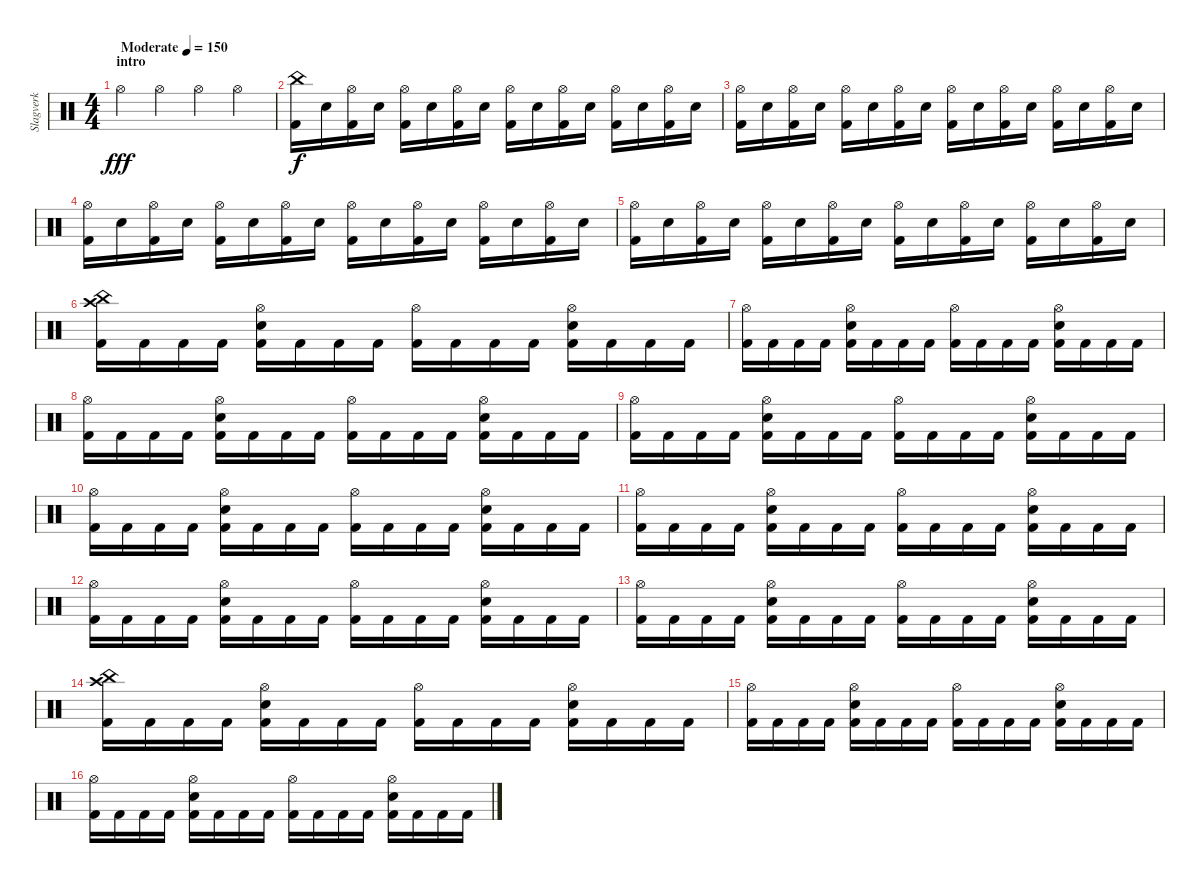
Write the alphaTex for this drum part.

\track ("Slagverk" "Slagverk") {instrument percussion}
\staff {score}
\articulation defaults
\ts (4 4)
\section ("" "intro")
\tempo (150 "Moderate")
\clef neutral
\ks c "Hi-Hat (open)".4{dy fff} "Hi-Hat (open)".4 "Hi-Hat (open)".4 "Hi-Hat (open)".4
|
("China (hit)" "Kick (hit) 2").16{dy f} "Electric Snare (hit)".16 ("Hi-Hat (open)" "Kick (hit) 2").16 "Electric Snare (hit)".16 ("Hi-Hat (open)" "Kick (hit) 2").16 "Electric Snare (hit)".16 ("Hi-Hat (open)" "Kick (hit) 2").16 "Electric Snare (hit)".16 ("Hi-Hat (open)" "Kick (hit) 2").16 "Electric Snare (hit)".16 ("Hi-Hat (open)" "Kick (hit) 2").16 "Electric Snare (hit)".16 ("Hi-Hat (open)" "Kick (hit) 2").16 "Electric Snare (hit)".16 ("Hi-Hat (open)" "Kick (hit) 2").16 "Electric Snare (hit)".16 |
("Hi-Hat (open)" "Kick (hit) 2").16 "Electric Snare (hit)".16 ("Hi-Hat (open)" "Kick (hit) 2").16 "Electric Snare (hit)".16 ("Hi-Hat (open)" "Kick (hit) 2").16 "Electric Snare (hit)".16 ("Hi-Hat (open)" "Kick (hit) 2").16 "Electric Snare (hit)".16 ("Hi-Hat (open)" "Kick (hit) 2").16 "Electric Snare (hit)".16 ("Hi-Hat (open)" "Kick (hit) 2").16 "Electric Snare (hit)".16 ("Hi-Hat (open)" "Kick (hit) 2").16 "Electric Snare (hit)".16 ("Hi-Hat (open)" "Kick (hit) 2").16 "Electric Snare (hit)".16 |
("Hi-Hat (open)" "Kick (hit) 2").16 "Electric Snare (hit)".16 ("Hi-Hat (open)" "Kick (hit) 2").16 "Electric Snare (hit)".16 ("Hi-Hat (open)" "Kick (hit) 2").16 "Electric Snare (hit)".16 ("Hi-Hat (open)" "Kick (hit) 2").16 "Electric Snare (hit)".16 ("Hi-Hat (open)" "Kick (hit) 2").16 "Electric Snare (hit)".16 ("Hi-Hat (open)" "Kick (hit) 2").16 "Electric Snare (hit)".16 ("Hi-Hat (open)" "Kick (hit) 2").16 "Electric Snare (hit)".16 ("Hi-Hat (open)" "Kick (hit) 2").16 "Electric Snare (hit)".16 |
("Hi-Hat (open)" "Kick (hit) 2").16 "Electric Snare (hit)".16 ("Hi-Hat (open)" "Kick (hit) 2").16 "Electric Snare (hit)".16 ("Hi-Hat (open)" "Kick (hit) 2").16 "Electric Snare (hit)".16 ("Hi-Hat (open)" "Kick (hit) 2").16 "Electric Snare (hit)".16 ("Hi-Hat (open)" "Kick (hit) 2").16 "Electric Snare (hit)".16 ("Hi-Hat (open)" "Kick (hit) 2").16 "Electric Snare (hit)".16 ("Hi-Hat (open)" "Kick (hit) 2").16 "Electric Snare (hit)".16 ("Hi-Hat (open)" "Kick (hit) 2").16 "Electric Snare (hit)".16 |
("China (hit)" "Crash high (hit)" "Kick (hit) 2").16 "Kick (hit) 2".16 "Kick (hit) 2".16 "Kick (hit) 2".16 ("Hi-Hat (open)" "Electric Snare (hit)" "Kick (hit) 2").16 "Kick (hit) 2".16 "Kick (hit) 2".16 "Kick (hit) 2".16 ("Hi-Hat (open)" "Kick (hit) 2").16 "Kick (hit) 2".16 "Kick (hit) 2".16 "Kick (hit) 2".16 ("Hi-Hat (open)" "Electric Snare (hit)" "Kick (hit) 2").16 "Kick (hit) 2".16 "Kick (hit) 2".16 "Kick (hit) 2".16 |
("Hi-Hat (open)" "Kick (hit) 2").16 "Kick (hit) 2".16 "Kick (hit) 2".16 "Kick (hit) 2".16 ("Hi-Hat (open)" "Electric Snare (hit)" "Kick (hit) 2").16 "Kick (hit) 2".16 "Kick (hit) 2".16 "Kick (hit) 2".16 ("Hi-Hat (open)" "Kick (hit) 2").16 "Kick (hit) 2".16 "Kick (hit) 2".16 "Kick (hit) 2".16 ("Hi-Hat (open)" "Electric Snare (hit)" "Kick (hit) 2").16 "Kick (hit) 2".16 "Kick (hit) 2".16 "Kick (hit) 2".16 |
("Hi-Hat (open)" "Kick (hit) 2").16 "Kick (hit) 2".16 "Kick (hit) 2".16 "Kick (hit) 2".16 ("Hi-Hat (open)" "Electric Snare (hit)" "Kick (hit) 2").16 "Kick (hit) 2".16 "Kick (hit) 2".16 "Kick (hit) 2".16 ("Hi-Hat (open)" "Kick (hit) 2").16 "Kick (hit) 2".16 "Kick (hit) 2".16 "Kick (hit) 2".16 ("Hi-Hat (open)" "Electric Snare (hit)" "Kick (hit) 2").16 "Kick (hit) 2".16 "Kick (hit) 2".16 "Kick (hit) 2".16 |
("Hi-Hat (open)" "Kick (hit) 2").16 "Kick (hit) 2".16 "Kick (hit) 2".16 "Kick (hit) 2".16 ("Hi-Hat (open)" "Electric Snare (hit)" "Kick (hit) 2").16 "Kick (hit) 2".16 "Kick (hit) 2".16 "Kick (hit) 2".16 ("Hi-Hat (open)" "Kick (hit) 2").16 "Kick (hit) 2".16 "Kick (hit) 2".16 "Kick (hit) 2".16 ("Hi-Hat (open)" "Electric Snare (hit)" "Kick (hit) 2").16 "Kick (hit) 2".16 "Kick (hit) 2".16 "Kick (hit) 2".16 |
("Hi-Hat (open)" "Kick (hit) 2").16 "Kick (hit) 2".16 "Kick (hit) 2".16 "Kick (hit) 2".16 ("Hi-Hat (open)" "Electric Snare (hit)" "Kick (hit) 2").16 "Kick (hit) 2".16 "Kick (hit) 2".16 "Kick (hit) 2".16 ("Hi-Hat (open)" "Kick (hit) 2").16 "Kick (hit) 2".16 "Kick (hit) 2".16 "Kick (hit) 2".16 ("Hi-Hat (open)" "Electric Snare (hit)" "Kick (hit) 2").16 "Kick (hit) 2".16 "Kick (hit) 2".16 "Kick (hit) 2".16 |
("Hi-Hat (open)" "Kick (hit) 2").16 "Kick (hit) 2".16 "Kick (hit) 2".16 "Kick (hit) 2".16 ("Hi-Hat (open)" "Electric Snare (hit)" "Kick (hit) 2").16 "Kick (hit) 2".16 "Kick (hit) 2".16 "Kick (hit) 2".16 ("Hi-Hat (open)" "Kick (hit) 2").16 "Kick (hit) 2".16 "Kick (hit) 2".16 "Kick (hit) 2".16 ("Hi-Hat (open)" "Electric Snare (hit)" "Kick (hit) 2").16 "Kick (hit) 2".16 "Kick (hit) 2".16 "Kick (hit) 2".16 |
("Hi-Hat (open)" "Kick (hit) 2").16 "Kick (hit) 2".16 "Kick (hit) 2".16 "Kick (hit) 2".16 ("Hi-Hat (open)" "Electric Snare (hit)" "Kick (hit) 2").16 "Kick (hit) 2".16 "Kick (hit) 2".16 "Kick (hit) 2".16 ("Hi-Hat (open)" "Kick (hit) 2").16 "Kick (hit) 2".16 "Kick (hit) 2".16 "Kick (hit) 2".16 ("Hi-Hat (open)" "Electric Snare (hit)" "Kick (hit) 2").16 "Kick (hit) 2".16 "Kick (hit) 2".16 "Kick (hit) 2".16 |
("Hi-Hat (open)" "Kick (hit) 2").16 "Kick (hit) 2".16 "Kick (hit) 2".16 "Kick (hit) 2".16 ("Hi-Hat (open)" "Electric Snare (hit)" "Kick (hit) 2").16 "Kick (hit) 2".16 "Kick (hit) 2".16 "Kick (hit) 2".16 ("Hi-Hat (open)" "Kick (hit) 2").16 "Kick (hit) 2".16 "Kick (hit) 2".16 "Kick (hit) 2".16 ("Hi-Hat (open)" "Electric Snare (hit)" "Kick (hit) 2").16 "Kick (hit) 2".16 "Kick (hit) 2".16 "Kick (hit) 2".16 |
("China (hit)" "Crash high (hit)" "Kick (hit) 2").16 "Kick (hit) 2".16 "Kick (hit) 2".16 "Kick (hit) 2".16 ("Hi-Hat (open)" "Electric Snare (hit)" "Kick (hit) 2").16 "Kick (hit) 2".16 "Kick (hit) 2".16 "Kick (hit) 2".16 ("Hi-Hat (open)" "Kick (hit) 2").16 "Kick (hit) 2".16 "Kick (hit) 2".16 "Kick (hit) 2".16 ("Hi-Hat (open)" "Electric Snare (hit)" "Kick (hit) 2").16 "Kick (hit) 2".16 "Kick (hit) 2".16 "Kick (hit) 2".16 |
("Hi-Hat (open)" "Kick (hit) 2").16 "Kick (hit) 2".16 "Kick (hit) 2".16 "Kick (hit) 2".16 ("Hi-Hat (open)" "Electric Snare (hit)" "Kick (hit) 2").16 "Kick (hit) 2".16 "Kick (hit) 2".16 "Kick (hit) 2".16 ("Hi-Hat (open)" "Kick (hit) 2").16 "Kick (hit) 2".16 "Kick (hit) 2".16 "Kick (hit) 2".16 ("Hi-Hat (open)" "Electric Snare (hit)" "Kick (hit) 2").16 "Kick (hit) 2".16 "Kick (hit) 2".16 "Kick (hit) 2".16 |
("Hi-Hat (open)" "Kick (hit) 2").16 "Kick (hit) 2".16 "Kick (hit) 2".16 "Kick (hit) 2".16 ("Hi-Hat (open)" "Electric Snare (hit)" "Kick (hit) 2").16 "Kick (hit) 2".16 "Kick (hit) 2".16 "Kick (hit) 2".16 ("Hi-Hat (open)" "Kick (hit) 2").16 "Kick (hit) 2".16 "Kick (hit) 2".16 "Kick (hit) 2".16 ("Hi-Hat (open)" "Electric Snare (hit)" "Kick (hit) 2").16 "Kick (hit) 2".16 "Kick (hit) 2".16 "Kick (hit) 2".16
